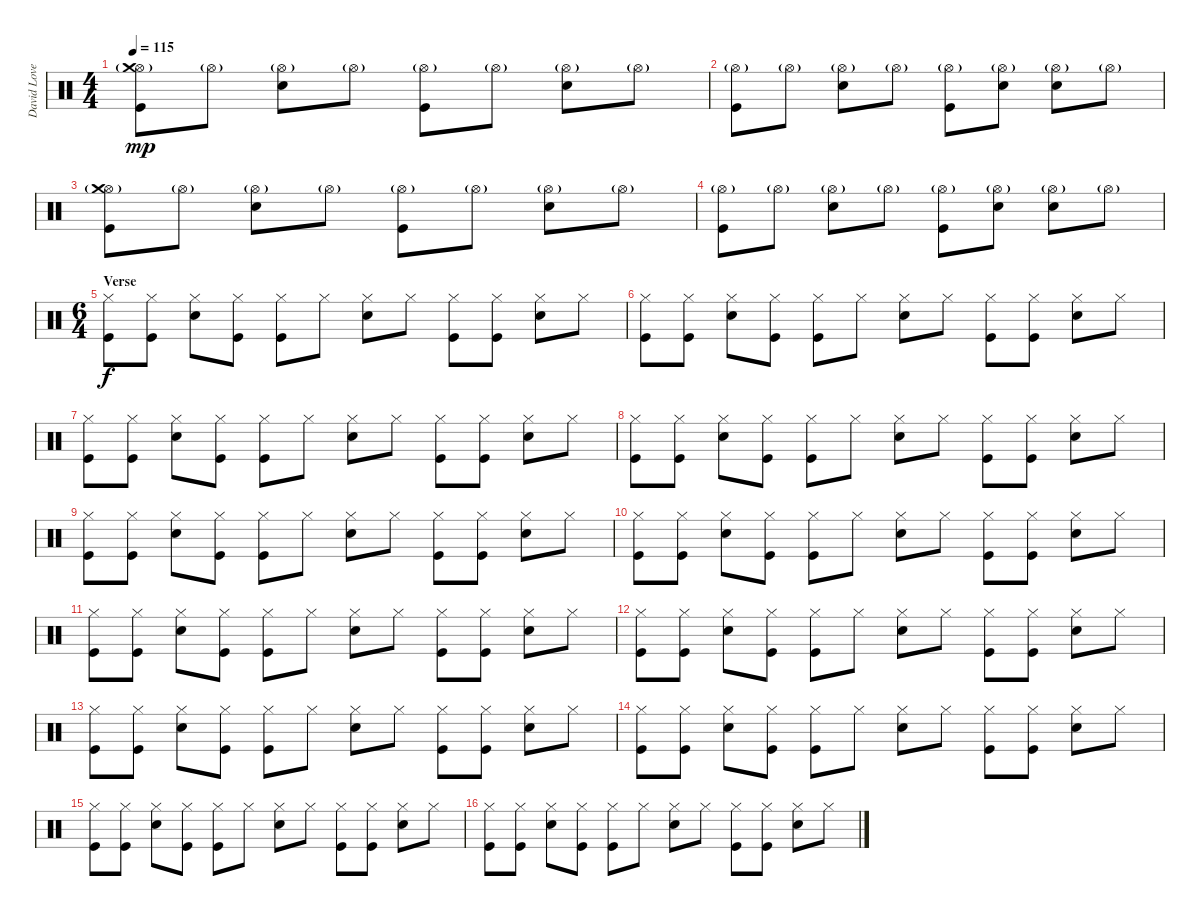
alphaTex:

\track ("David Lovering" "David Love") {instrument percussion}
\staff {score}
\articulation defaults
\ts (4 4)
\section ("" "")
\tempo 115
\clef neutral
\ks c
("Hi-Hat (open)"{g} "Crash medium (hit)" "Kick (hit)").8{dy mp} "Hi-Hat (open)"{g}.8 ("Hi-Hat (open)"{g} "Snare (hit) 2").8 "Hi-Hat (open)"{g}.8 ("Hi-Hat (open)"{g} "Kick (hit)").8 "Hi-Hat (open)"{g}.8 ("Hi-Hat (open)"{g} "Snare (hit) 2").8 "Hi-Hat (open)"{g}.8 |
("Hi-Hat (open)"{g} "Kick (hit)").8 "Hi-Hat (open)"{g}.8 ("Hi-Hat (open)"{g} "Snare (hit) 2").8 "Hi-Hat (open)"{g}.8 ("Hi-Hat (open)"{g} "Kick (hit)").8 ("Hi-Hat (open)"{g} "Snare (hit) 2").8 ("Hi-Hat (open)"{g} "Snare (hit) 2").8 "Hi-Hat (open)"{g}.8 |
("Hi-Hat (open)"{g} "Crash medium (hit)" "Kick (hit)").8 "Hi-Hat (open)"{g}.8 ("Hi-Hat (open)"{g} "Snare (hit) 2").8 "Hi-Hat (open)"{g}.8 ("Hi-Hat (open)"{g} "Kick (hit)").8 "Hi-Hat (open)"{g}.8 ("Hi-Hat (open)"{g} "Snare (hit) 2").8 "Hi-Hat (open)"{g}.8 |
("Hi-Hat (open)"{g} "Kick (hit)").8 "Hi-Hat (open)"{g}.8 ("Hi-Hat (open)"{g} "Snare (hit) 2").8 "Hi-Hat (open)"{g}.8 ("Hi-Hat (open)"{g} "Kick (hit)").8 ("Hi-Hat (open)"{g} "Snare (hit) 2").8 ("Hi-Hat (open)"{g} "Snare (hit) 2").8 "Hi-Hat (open)"{g}.8 |
\ts (6 4)
\section ("" "Verse")
("Hi-Hat (closed)" "Kick (hit)").8{dy f} ("Hi-Hat (closed)" "Kick (hit)").8 ("Hi-Hat (closed)" "Snare (hit) 2").8 ("Hi-Hat (closed)" "Kick (hit)").8 ("Hi-Hat (closed)" "Kick (hit)").8 "Hi-Hat (closed)".8 ("Hi-Hat (closed)" "Snare (hit) 2").8 "Hi-Hat (closed)".8 ("Hi-Hat (closed)" "Kick (hit)").8 ("Hi-Hat (closed)" "Kick (hit)").8 ("Hi-Hat (closed)" "Snare (hit) 2").8 "Hi-Hat (closed)".8 |
("Hi-Hat (closed)" "Kick (hit)").8 ("Hi-Hat (closed)" "Kick (hit)").8 ("Hi-Hat (closed)" "Snare (hit) 2").8 ("Hi-Hat (closed)" "Kick (hit)").8 ("Hi-Hat (closed)" "Kick (hit)").8 "Hi-Hat (closed)".8 ("Hi-Hat (closed)" "Snare (hit) 2").8 "Hi-Hat (closed)".8 ("Hi-Hat (closed)" "Kick (hit)").8 ("Hi-Hat (closed)" "Kick (hit)").8 ("Hi-Hat (closed)" "Snare (hit) 2").8 "Hi-Hat (closed)".8 |
("Hi-Hat (closed)" "Kick (hit)").8 ("Hi-Hat (closed)" "Kick (hit)").8 ("Hi-Hat (closed)" "Snare (hit) 2").8 ("Hi-Hat (closed)" "Kick (hit)").8 ("Hi-Hat (closed)" "Kick (hit)").8 "Hi-Hat (closed)".8 ("Hi-Hat (closed)" "Snare (hit) 2").8 "Hi-Hat (closed)".8 ("Hi-Hat (closed)" "Kick (hit)").8 ("Hi-Hat (closed)" "Kick (hit)").8 ("Hi-Hat (closed)" "Snare (hit) 2").8 "Hi-Hat (closed)".8 |
("Hi-Hat (closed)" "Kick (hit)").8 ("Hi-Hat (closed)" "Kick (hit)").8 ("Hi-Hat (closed)" "Snare (hit) 2").8 ("Hi-Hat (closed)" "Kick (hit)").8 ("Hi-Hat (closed)" "Kick (hit)").8 "Hi-Hat (closed)".8 ("Hi-Hat (closed)" "Snare (hit) 2").8 "Hi-Hat (closed)".8 ("Hi-Hat (closed)" "Kick (hit)").8 ("Hi-Hat (closed)" "Kick (hit)").8 ("Hi-Hat (closed)" "Snare (hit) 2").8 "Hi-Hat (closed)".8 |
("Hi-Hat (closed)" "Kick (hit)").8 ("Hi-Hat (closed)" "Kick (hit)").8 ("Hi-Hat (closed)" "Snare (hit) 2").8 ("Hi-Hat (closed)" "Kick (hit)").8 ("Hi-Hat (closed)" "Kick (hit)").8 "Hi-Hat (closed)".8 ("Hi-Hat (closed)" "Snare (hit) 2").8 "Hi-Hat (closed)".8 ("Hi-Hat (closed)" "Kick (hit)").8 ("Hi-Hat (closed)" "Kick (hit)").8 ("Hi-Hat (closed)" "Snare (hit) 2").8 "Hi-Hat (closed)".8 |
("Hi-Hat (closed)" "Kick (hit)").8 ("Hi-Hat (closed)" "Kick (hit)").8 ("Hi-Hat (closed)" "Snare (hit) 2").8 ("Hi-Hat (closed)" "Kick (hit)").8 ("Hi-Hat (closed)" "Kick (hit)").8 "Hi-Hat (closed)".8 ("Hi-Hat (closed)" "Snare (hit) 2").8 "Hi-Hat (closed)".8 ("Hi-Hat (closed)" "Kick (hit)").8 ("Hi-Hat (closed)" "Kick (hit)").8 ("Hi-Hat (closed)" "Snare (hit) 2").8 "Hi-Hat (closed)".8 |
("Hi-Hat (closed)" "Kick (hit)").8 ("Hi-Hat (closed)" "Kick (hit)").8 ("Hi-Hat (closed)" "Snare (hit) 2").8 ("Hi-Hat (closed)" "Kick (hit)").8 ("Hi-Hat (closed)" "Kick (hit)").8 "Hi-Hat (closed)".8 ("Hi-Hat (closed)" "Snare (hit) 2").8 "Hi-Hat (closed)".8 ("Hi-Hat (closed)" "Kick (hit)").8 ("Hi-Hat (closed)" "Kick (hit)").8 ("Hi-Hat (closed)" "Snare (hit) 2").8 "Hi-Hat (closed)".8 |
("Hi-Hat (closed)" "Kick (hit)").8 ("Hi-Hat (closed)" "Kick (hit)").8 ("Hi-Hat (closed)" "Snare (hit) 2").8 ("Hi-Hat (closed)" "Kick (hit)").8 ("Hi-Hat (closed)" "Kick (hit)").8 "Hi-Hat (closed)".8 ("Hi-Hat (closed)" "Snare (hit) 2").8 "Hi-Hat (closed)".8 ("Hi-Hat (closed)" "Kick (hit)").8 ("Hi-Hat (closed)" "Kick (hit)").8 ("Hi-Hat (closed)" "Snare (hit) 2").8 "Hi-Hat (closed)".8 |
("Hi-Hat (closed)" "Kick (hit)").8 ("Hi-Hat (closed)" "Kick (hit)").8 ("Hi-Hat (closed)" "Snare (hit) 2").8 ("Hi-Hat (closed)" "Kick (hit)").8 ("Hi-Hat (closed)" "Kick (hit)").8 "Hi-Hat (closed)".8 ("Hi-Hat (closed)" "Snare (hit) 2").8 "Hi-Hat (closed)".8 ("Hi-Hat (closed)" "Kick (hit)").8 ("Hi-Hat (closed)" "Kick (hit)").8 ("Hi-Hat (closed)" "Snare (hit) 2").8 "Hi-Hat (closed)".8 |
("Hi-Hat (closed)" "Kick (hit)").8 ("Hi-Hat (closed)" "Kick (hit)").8 ("Hi-Hat (closed)" "Snare (hit) 2").8 ("Hi-Hat (closed)" "Kick (hit)").8 ("Hi-Hat (closed)" "Kick (hit)").8 "Hi-Hat (closed)".8 ("Hi-Hat (closed)" "Snare (hit) 2").8 "Hi-Hat (closed)".8 ("Hi-Hat (closed)" "Kick (hit)").8 ("Hi-Hat (closed)" "Kick (hit)").8 ("Hi-Hat (closed)" "Snare (hit) 2").8 "Hi-Hat (closed)".8 |
("Hi-Hat (closed)" "Kick (hit)").8 ("Hi-Hat (closed)" "Kick (hit)").8 ("Hi-Hat (closed)" "Snare (hit) 2").8 ("Hi-Hat (closed)" "Kick (hit)").8 ("Hi-Hat (closed)" "Kick (hit)").8 "Hi-Hat (closed)".8 ("Hi-Hat (closed)" "Snare (hit) 2").8 "Hi-Hat (closed)".8 ("Hi-Hat (closed)" "Kick (hit)").8 ("Hi-Hat (closed)" "Kick (hit)").8 ("Hi-Hat (closed)" "Snare (hit) 2").8 "Hi-Hat (closed)".8 |
("Hi-Hat (closed)" "Kick (hit)").8 ("Hi-Hat (closed)" "Kick (hit)").8 ("Hi-Hat (closed)" "Snare (hit) 2").8 ("Hi-Hat (closed)" "Kick (hit)").8 ("Hi-Hat (closed)" "Kick (hit)").8 "Hi-Hat (closed)".8 ("Hi-Hat (closed)" "Snare (hit) 2").8 "Hi-Hat (closed)".8 ("Hi-Hat (closed)" "Kick (hit)").8 ("Hi-Hat (closed)" "Kick (hit)").8 ("Hi-Hat (closed)" "Snare (hit) 2").8 "Hi-Hat (closed)".8
